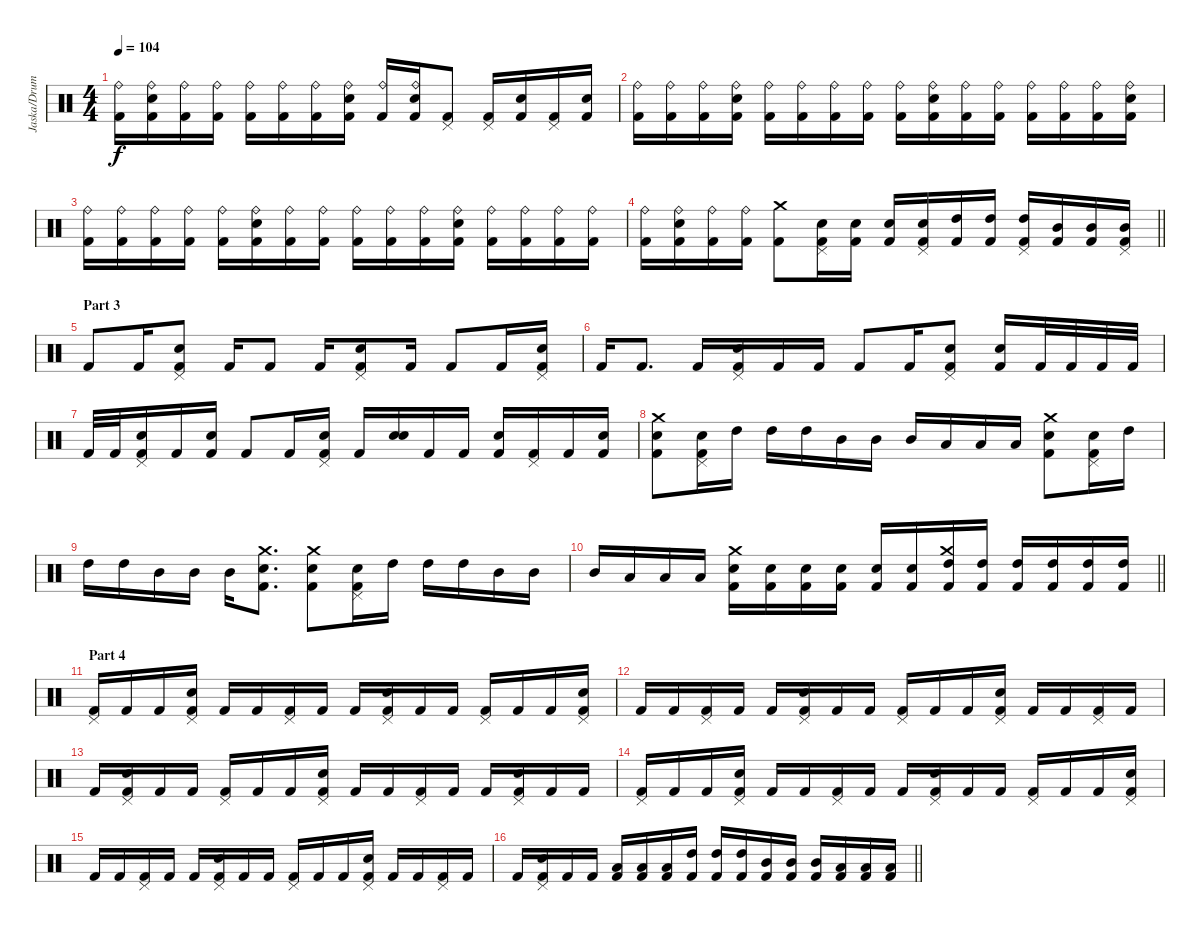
\track ("Jaska/Drums" "Jaska/Drum") {instrument percussion}
\staff {score}
\articulation defaults
\ts (4 4)
\tempo 104
\clef neutral
\ks c
("Ride (bell)" "Kick (hit) 2").16{dy f} ("Snare (hit) 2" "Ride (bell)" "Kick (hit) 2").16 ("Ride (bell)" "Kick (hit) 2").16 ("Ride (bell)" "Kick (hit) 2").16 ("Ride (bell)" "Kick (hit) 2").16 ("Ride (bell)" "Kick (hit) 2").16 ("Ride (bell)" "Kick (hit) 2").16 ("Snare (hit) 2" "Ride (bell)" "Kick (hit) 2").16 ("Ride (bell)" "Kick (hit) 2").16 ("Snare (hit) 2" "Ride (bell)" "Kick (hit) 2").16 ("Pedal Hi-Hat (hit)" "Kick (hit) 2").8 ("Pedal Hi-Hat (hit)" "Kick (hit) 2").16 ("Snare (hit) 2" "Kick (hit) 2").16 ("Pedal Hi-Hat (hit)" "Kick (hit) 2").16 ("Snare (hit) 2" "Kick (hit) 2").16 |
("Ride (bell)" "Kick (hit) 2").16 ("Ride (bell)" "Kick (hit) 2").16 ("Ride (bell)" "Kick (hit) 2").16 ("Snare (hit) 2" "Ride (bell)" "Kick (hit) 2").16 ("Ride (bell)" "Kick (hit) 2").16 ("Ride (bell)" "Kick (hit) 2").16 ("Ride (bell)" "Kick (hit) 2").16 ("Ride (bell)" "Kick (hit) 2").16 ("Ride (bell)" "Kick (hit) 2").16 ("Snare (hit) 2" "Ride (bell)" "Kick (hit) 2").16 ("Ride (bell)" "Kick (hit) 2").16 ("Ride (bell)" "Kick (hit) 2").16 ("Ride (bell)" "Kick (hit) 2").16 ("Ride (bell)" "Kick (hit) 2").16 ("Ride (bell)" "Kick (hit) 2").16 ("Snare (hit) 2" "Ride (bell)" "Kick (hit) 2").16 |
("Ride (bell)" "Kick (hit) 2").16 ("Ride (bell)" "Kick (hit) 2").16 ("Ride (bell)" "Kick (hit) 2").16 ("Ride (bell)" "Kick (hit) 2").16 ("Ride (bell)" "Kick (hit) 2").16 ("Snare (hit) 2" "Ride (bell)" "Kick (hit) 2").16 ("Ride (bell)" "Kick (hit) 2").16 ("Ride (bell)" "Kick (hit) 2").16 ("Ride (bell)" "Kick (hit) 2").16 ("Ride (bell)" "Kick (hit) 2").16 ("Ride (bell)" "Kick (hit) 2").16 ("Snare (hit) 2" "Ride (bell)" "Kick (hit) 2").16 ("Ride (bell)" "Kick (hit) 2").16 ("Ride (bell)" "Kick (hit) 2").16 ("Ride (bell)" "Kick (hit) 2").16 ("Ride (bell)" "Kick (hit) 2").16 |
\barLineRight lightlight
("Ride (bell)" "Kick (hit) 2").16 ("Snare (hit) 2" "Ride (bell)" "Kick (hit) 2").16 ("Ride (bell)" "Kick (hit) 2").16 ("Ride (bell)" "Kick (hit) 2").16 ("Crash medium (hit)" "Kick (hit) 2").8 ("Snare (hit) 2" "Pedal Hi-Hat (hit)" "Kick (hit) 2").16 ("Snare (hit) 2" "Kick (hit) 2").16 ("Snare (hit) 2" "Kick (hit) 2").16 ("Snare (hit) 2" "Pedal Hi-Hat (hit)" "Kick (hit) 2").16 ("High Tom (hit)" "Kick (hit) 2").16 ("High Tom (hit)" "Kick (hit) 2").16 ("High Tom (hit)" "Pedal Hi-Hat (hit)" "Kick (hit) 2").16 ("Mid Tom (hit)" "Kick (hit) 2").16 ("Mid Tom (hit)" "Kick (hit) 2").16 ("Mid Tom (hit)" "Pedal Hi-Hat (hit)" "Kick (hit) 2").16 |
\section ("" "Part 3")
"Kick (hit) 2".8 "Kick (hit) 2".16 ("Snare (hit) 2" "Pedal Hi-Hat (hit)" "Kick (hit) 2").8 "Kick (hit) 2".16 "Kick (hit) 2".8 "Kick (hit) 2".16 ("Snare (hit) 2" "Pedal Hi-Hat (hit)" "Kick (hit) 2").8 "Kick (hit) 2".16 "Kick (hit) 2".8 "Kick (hit) 2".16 ("Snare (hit) 2" "Pedal Hi-Hat (hit)" "Kick (hit) 2").16 |
"Kick (hit) 2".16 "Kick (hit) 2".8{d} "Kick (hit) 2".16 ("Snare (hit) 2" "Pedal Hi-Hat (hit)" "Kick (hit) 2").16 "Kick (hit) 2".16 "Kick (hit) 2".16 "Kick (hit) 2".8 "Kick (hit) 2".16 ("Snare (hit) 2" "Pedal Hi-Hat (hit)" "Kick (hit) 2").8 ("Snare (hit) 2" "Kick (hit) 2").16 "Kick (hit) 2".32 "Kick (hit) 2".32 "Kick (hit) 2".32 "Kick (hit) 2".32 |
"Kick (hit) 2".32 "Kick (hit) 2".32 ("Snare (hit) 2" "Pedal Hi-Hat (hit)" "Kick (hit) 2").16 "Kick (hit) 2".16 ("Snare (hit) 2" "Kick (hit) 2").16 "Kick (hit) 2".8 "Kick (hit) 2".16 ("Snare (hit) 2" "Pedal Hi-Hat (hit)" "Kick (hit) 2").16 "Kick (hit) 2".16 ("Snare (hit) 2" "Snare (hit) 2").16 "Kick (hit) 2".16 "Kick (hit) 2".16 ("Snare (hit) 2" "Kick (hit) 2").16 ("Pedal Hi-Hat (hit)" "Kick (hit) 2").16 "Kick (hit) 2".16 ("Snare (hit) 2" "Kick (hit) 2").16 |
("Snare (hit) 2" "Crash medium (hit)" "Kick (hit) 2").8 ("Snare (hit) 2" "Pedal Hi-Hat (hit)" "Kick (hit) 2").16 "High Tom (hit)".16 "High Tom (hit)".16 "High Tom (hit)".16 "Mid Tom (hit)".16 "Mid Tom (hit)".16 "Mid Tom (hit)".16 "Low Tom (hit)".16 "Low Tom (hit)".16 "Low Tom (hit)".16 ("Snare (hit) 2" "Crash medium (hit)" "Kick (hit) 2").8 ("Snare (hit) 2" "Pedal Hi-Hat (hit)" "Kick (hit) 2").16 "High Tom (hit)".16 |
"High Tom (hit)".16 "High Tom (hit)".16 "Mid Tom (hit)".16 "Mid Tom (hit)".16 "Mid Tom (hit)".16 ("Snare (hit) 2" "Crash medium (hit)" "Kick (hit) 2").8{d} ("Snare (hit) 2" "Crash medium (hit)" "Kick (hit) 2").8 ("Snare (hit) 2" "Pedal Hi-Hat (hit)" "Kick (hit) 2").16 "High Tom (hit)".16 "High Tom (hit)".16 "High Tom (hit)".16 "Mid Tom (hit)".16 "Mid Tom (hit)".16 |
\barLineRight lightlight "Mid Tom (hit)".16 "Low Tom (hit)".16 "Low Tom (hit)".16 "Low Tom (hit)".16
("Snare (hit) 2" "Crash medium (hit)" "Kick (hit) 2").16 ("Snare (hit) 2" "Kick (hit) 2").16 ("Snare (hit) 2" "Kick (hit) 2").16 ("Snare (hit) 2" "Kick (hit) 2").16 ("Snare (hit) 2" "Kick (hit) 2").16 ("Snare (hit) 2" "Kick (hit) 2").16 ("High Tom (hit)" "Crash medium (hit)" "Kick (hit) 2").16 ("High Tom (hit)" "Kick (hit) 2").16 ("High Tom (hit)" "Kick (hit) 2").16 ("High Tom (hit)" "Kick (hit) 2").16 ("High Tom (hit)" "Kick (hit) 2").16 ("High Tom (hit)" "Kick (hit) 2").16 |
\section ("" "Part 4")
("Pedal Hi-Hat (hit)" "Kick (hit) 2").16 "Kick (hit) 2".16 "Kick (hit) 2".16 ("Snare (hit) 2" "Pedal Hi-Hat (hit)" "Kick (hit) 2").16 "Kick (hit) 2".16 "Kick (hit) 2".16 ("Pedal Hi-Hat (hit)" "Kick (hit) 2").16 "Kick (hit) 2".16 "Kick (hit) 2".16 ("Snare (hit) 2" "Pedal Hi-Hat (hit)" "Kick (hit) 2").16 "Kick (hit) 2".16 "Kick (hit) 2".16 ("Pedal Hi-Hat (hit)" "Kick (hit) 2").16 "Kick (hit) 2".16 "Kick (hit) 2".16 ("Snare (hit) 2" "Pedal Hi-Hat (hit)" "Kick (hit) 2").16 |
"Kick (hit) 2".16 "Kick (hit) 2".16 ("Pedal Hi-Hat (hit)" "Kick (hit) 2").16 "Kick (hit) 2".16 "Kick (hit) 2".16 ("Snare (hit) 2" "Pedal Hi-Hat (hit)" "Kick (hit) 2").16 "Kick (hit) 2".16 "Kick (hit) 2".16 ("Pedal Hi-Hat (hit)" "Kick (hit) 2").16 "Kick (hit) 2".16 "Kick (hit) 2".16 ("Snare (hit) 2" "Pedal Hi-Hat (hit)" "Kick (hit) 2").16 "Kick (hit) 2".16 "Kick (hit) 2".16 ("Pedal Hi-Hat (hit)" "Kick (hit) 2").16 "Kick (hit) 2".16 |
"Kick (hit) 2".16 ("Snare (hit) 2" "Pedal Hi-Hat (hit)" "Kick (hit) 2").16 "Kick (hit) 2".16 "Kick (hit) 2".16 ("Pedal Hi-Hat (hit)" "Kick (hit) 2").16 "Kick (hit) 2".16 "Kick (hit) 2".16 ("Snare (hit) 2" "Pedal Hi-Hat (hit)" "Kick (hit) 2").16 "Kick (hit) 2".16 "Kick (hit) 2".16 ("Pedal Hi-Hat (hit)" "Kick (hit) 2").16 "Kick (hit) 2".16 "Kick (hit) 2".16 ("Snare (hit) 2" "Pedal Hi-Hat (hit)" "Kick (hit) 2").16 "Kick (hit) 2".16 "Kick (hit) 2".16 |
("Pedal Hi-Hat (hit)" "Kick (hit) 2").16 "Kick (hit) 2".16 "Kick (hit) 2".16 ("Snare (hit) 2" "Pedal Hi-Hat (hit)" "Kick (hit) 2").16 "Kick (hit) 2".16 "Kick (hit) 2".16 ("Pedal Hi-Hat (hit)" "Kick (hit) 2").16 "Kick (hit) 2".16 "Kick (hit) 2".16 ("Snare (hit) 2" "Pedal Hi-Hat (hit)" "Kick (hit) 2").16 "Kick (hit) 2".16 "Kick (hit) 2".16 ("Pedal Hi-Hat (hit)" "Kick (hit) 2").16 "Kick (hit) 2".16 "Kick (hit) 2".16 ("Snare (hit) 2" "Pedal Hi-Hat (hit)" "Kick (hit) 2").16 |
"Kick (hit) 2".16 "Kick (hit) 2".16 ("Pedal Hi-Hat (hit)" "Kick (hit) 2").16 "Kick (hit) 2".16 "Kick (hit) 2".16 ("Snare (hit) 2" "Pedal Hi-Hat (hit)" "Kick (hit) 2").16 "Kick (hit) 2".16 "Kick (hit) 2".16 ("Pedal Hi-Hat (hit)" "Kick (hit) 2").16 "Kick (hit) 2".16 "Kick (hit) 2".16 ("Snare (hit) 2" "Pedal Hi-Hat (hit)" "Kick (hit) 2").16 "Kick (hit) 2".16 "Kick (hit) 2".16 ("Pedal Hi-Hat (hit)" "Kick (hit) 2").16 "Kick (hit) 2".16 |
\barLineRight lightlight "Kick (hit) 2".16
("Snare (hit) 2" "Pedal Hi-Hat (hit)" "Kick (hit) 2").16 "Kick (hit) 2".16 "Kick (hit) 2".16 ("Low Tom (hit)" "Kick (hit) 2").16 ("Low Tom (hit)" "Kick (hit) 2").16 ("Low Tom (hit)" "Kick (hit) 2").16 ("High Tom (hit)" "Kick (hit) 2").16 ("High Tom (hit)" "Kick (hit) 2").16 ("High Tom (hit)" "Kick (hit) 2").16 ("Mid Tom (hit)" "Kick (hit) 2").16 ("Mid Tom (hit)" "Kick (hit) 2").16 ("Mid Tom (hit)" "Kick (hit) 2").16 ("Low Floor Tom (hit)" "Kick (hit) 2").16 ("Low Floor Tom (hit)" "Kick (hit) 2").16 ("Low Floor Tom (hit)" "Kick (hit) 2").16
